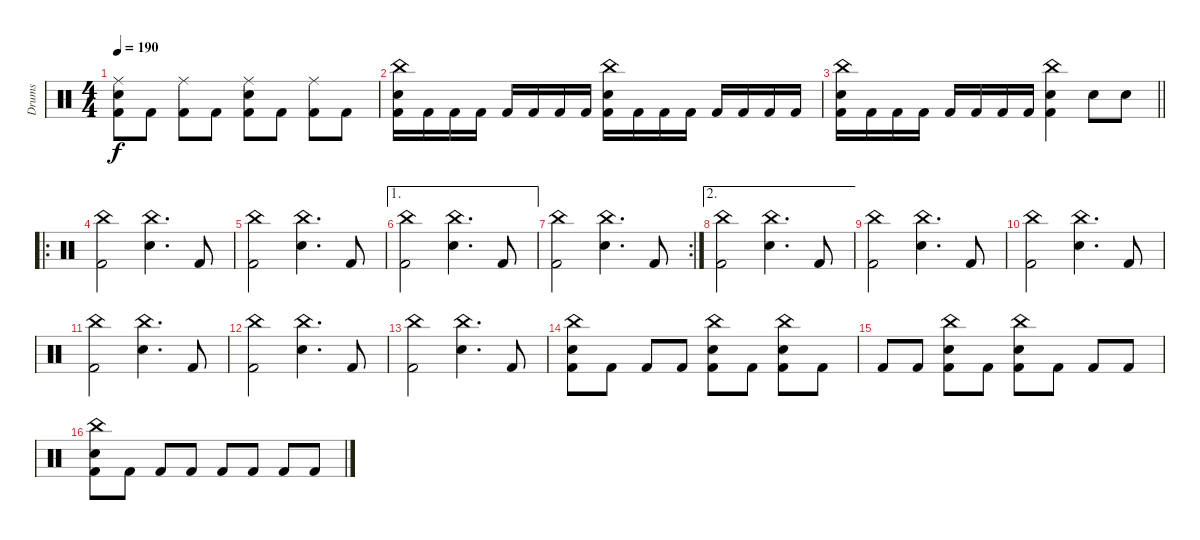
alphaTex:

\track ("Drums" "Drums") {instrument percussion}
\staff {score}
\articulation defaults
\ts (4 4)
\tempo 190
\clef neutral
\ks c
("Ride (middle)" "Snare (hit) 2" "Kick (hit) 2").8{dy f} "Kick (hit) 2".8 ("Ride (middle)" "Kick (hit) 2").8 "Kick (hit) 2".8 ("Ride (middle)" "Snare (hit) 2" "Kick (hit) 2").8 "Kick (hit) 2".8 ("Ride (middle)" "Kick (hit) 2").8 "Kick (hit) 2".8 |
("China (hit)" "Snare (hit) 2" "Kick (hit) 2").16 "Kick (hit) 2".16 "Kick (hit) 2".16 "Kick (hit) 2".16 "Kick (hit) 2".16 "Kick (hit) 2".16 "Kick (hit) 2".16 "Kick (hit) 2".16 ("China (hit)" "Snare (hit) 2" "Kick (hit) 2").16 "Kick (hit) 2".16 "Kick (hit) 2".16 "Kick (hit) 2".16 "Kick (hit) 2".16 "Kick (hit) 2".16 "Kick (hit) 2".16 "Kick (hit) 2".16 |
\barLineRight lightlight
("China (hit)" "Snare (hit) 2" "Kick (hit) 2").16 "Kick (hit) 2".16 "Kick (hit) 2".16 "Kick (hit) 2".16 "Kick (hit) 2".16 "Kick (hit) 2".16 "Kick (hit) 2".16 "Kick (hit) 2".16 ("China (hit)" "Snare (hit) 2" "Kick (hit) 2").4 "Snare (hit) 2".8 "Snare (hit) 2".8 |
\ro
("China (hit)" "Kick (hit) 2").2 ("China (hit)" "Snare (hit) 2").4{d} "Kick (hit) 2".8 |
("China (hit)" "Kick (hit) 2").2 ("China (hit)" "Snare (hit) 2").4{d} "Kick (hit) 2".8 |
\ae 1
("China (hit)" "Kick (hit) 2").2 ("China (hit)" "Snare (hit) 2").4{d} "Kick (hit) 2".8 |
\rc 2
("China (hit)" "Kick (hit) 2").2 ("China (hit)" "Snare (hit) 2").4{d} "Kick (hit) 2".8 |
\ae 2
("China (hit)" "Kick (hit) 2").2 ("China (hit)" "Snare (hit) 2").4{d} "Kick (hit) 2".8 |
("China (hit)" "Kick (hit) 2").2 ("China (hit)" "Snare (hit) 2").4{d} "Kick (hit) 2".8 |
("China (hit)" "Kick (hit) 2").2 ("China (hit)" "Snare (hit) 2").4{d} "Kick (hit) 2".8 |
("China (hit)" "Kick (hit) 2").2 ("China (hit)" "Snare (hit) 2").4{d} "Kick (hit) 2".8 |
("China (hit)" "Kick (hit) 2").2 ("China (hit)" "Snare (hit) 2").4{d} "Kick (hit) 2".8 |
("China (hit)" "Kick (hit) 2").2 ("China (hit)" "Snare (hit) 2").4{d} "Kick (hit) 2".8 |
("China (hit)" "Snare (hit) 2" "Kick (hit) 2").8 "Kick (hit) 2".8 "Kick (hit) 2".8 "Kick (hit) 2".8 ("China (hit)" "Snare (hit) 2" "Kick (hit) 2").8 "Kick (hit) 2".8 ("China (hit)" "Snare (hit) 2" "Kick (hit) 2").8 "Kick (hit) 2".8 |
"Kick (hit) 2".8 "Kick (hit) 2".8 ("China (hit)" "Snare (hit) 2" "Kick (hit) 2").8 "Kick (hit) 2".8 ("China (hit)" "Snare (hit) 2" "Kick (hit) 2").8 "Kick (hit) 2".8 "Kick (hit) 2".8 "Kick (hit) 2".8 |
("China (hit)" "Snare (hit) 2" "Kick (hit) 2").8 "Kick (hit) 2".8 "Kick (hit) 2".8 "Kick (hit) 2".8 "Kick (hit) 2".8 "Kick (hit) 2".8 "Kick (hit) 2".8 "Kick (hit) 2".8
